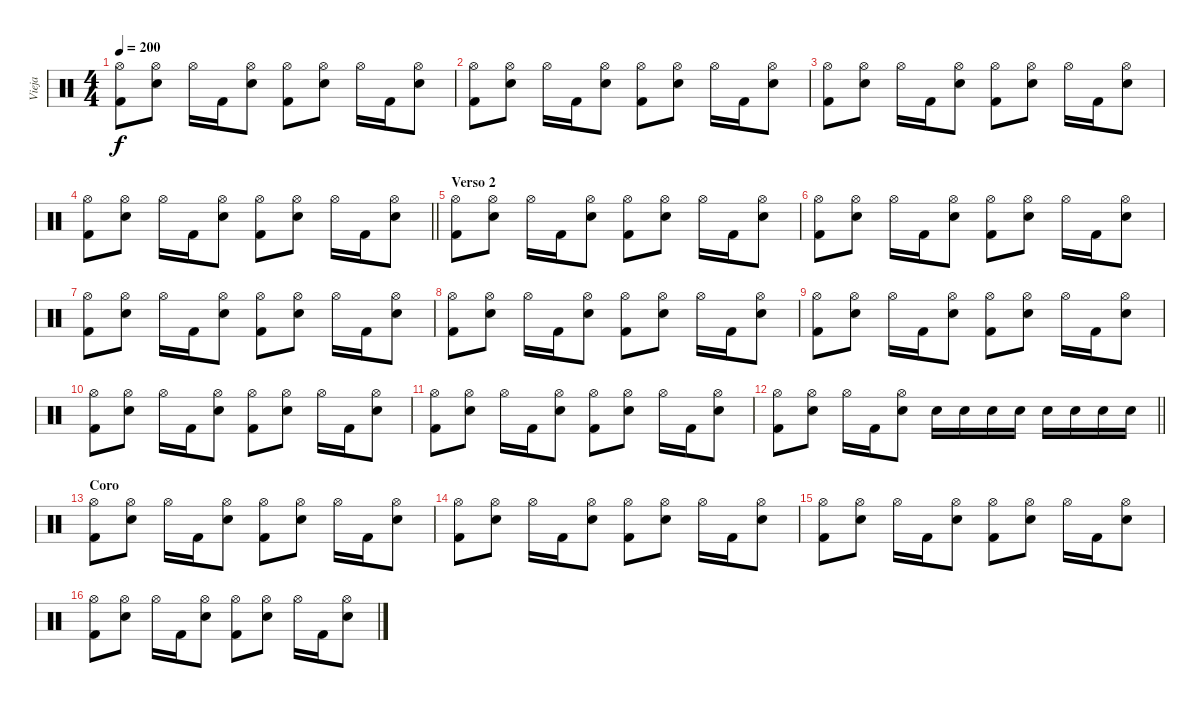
\track ("Vieja" "Vieja") {instrument percussion}
\staff {score}
\articulation defaults
\ts (4 4)
\tempo 200
\clef neutral
\ks c
("Hi-Hat (open)" "Kick (hit) 2").8{dy f} ("Hi-Hat (open)" "Electric Snare (hit)").8 "Hi-Hat (open)".16 "Kick (hit) 2".16 ("Hi-Hat (open)" "Electric Snare (hit)").8 ("Hi-Hat (open)" "Kick (hit) 2").8 ("Hi-Hat (open)" "Electric Snare (hit)").8 "Hi-Hat (open)".16 "Kick (hit) 2".16 ("Hi-Hat (open)" "Electric Snare (hit)").8 |
("Hi-Hat (open)" "Kick (hit) 2").8 ("Hi-Hat (open)" "Electric Snare (hit)").8 "Hi-Hat (open)".16 "Kick (hit) 2".16 ("Hi-Hat (open)" "Electric Snare (hit)").8 ("Hi-Hat (open)" "Kick (hit) 2").8 ("Hi-Hat (open)" "Electric Snare (hit)").8 "Hi-Hat (open)".16 "Kick (hit) 2".16 ("Hi-Hat (open)" "Electric Snare (hit)").8 |
("Hi-Hat (open)" "Kick (hit) 2").8 ("Hi-Hat (open)" "Electric Snare (hit)").8 "Hi-Hat (open)".16 "Kick (hit) 2".16 ("Hi-Hat (open)" "Electric Snare (hit)").8 ("Hi-Hat (open)" "Kick (hit) 2").8 ("Hi-Hat (open)" "Electric Snare (hit)").8 "Hi-Hat (open)".16 "Kick (hit) 2".16 ("Hi-Hat (open)" "Electric Snare (hit)").8 |
\barLineRight lightlight
("Hi-Hat (open)" "Kick (hit) 2").8 ("Hi-Hat (open)" "Electric Snare (hit)").8 "Hi-Hat (open)".16 "Kick (hit) 2".16 ("Hi-Hat (open)" "Electric Snare (hit)").8 ("Hi-Hat (open)" "Kick (hit) 2").8 ("Hi-Hat (open)" "Electric Snare (hit)").8 "Hi-Hat (open)".16 "Kick (hit) 2".16 ("Hi-Hat (open)" "Electric Snare (hit)").8 |
\section ("" "Verso 2")
("Hi-Hat (open)" "Kick (hit) 2").8 ("Hi-Hat (open)" "Electric Snare (hit)").8 "Hi-Hat (open)".16 "Kick (hit) 2".16 ("Hi-Hat (open)" "Electric Snare (hit)").8 ("Hi-Hat (open)" "Kick (hit) 2").8 ("Hi-Hat (open)" "Electric Snare (hit)").8 "Hi-Hat (open)".16 "Kick (hit) 2".16 ("Hi-Hat (open)" "Electric Snare (hit)").8 |
("Hi-Hat (open)" "Kick (hit) 2").8 ("Hi-Hat (open)" "Electric Snare (hit)").8 "Hi-Hat (open)".16 "Kick (hit) 2".16 ("Hi-Hat (open)" "Electric Snare (hit)").8 ("Hi-Hat (open)" "Kick (hit) 2").8 ("Hi-Hat (open)" "Electric Snare (hit)").8 "Hi-Hat (open)".16 "Kick (hit) 2".16 ("Hi-Hat (open)" "Electric Snare (hit)").8 |
("Hi-Hat (open)" "Kick (hit) 2").8 ("Hi-Hat (open)" "Electric Snare (hit)").8 "Hi-Hat (open)".16 "Kick (hit) 2".16 ("Hi-Hat (open)" "Electric Snare (hit)").8 ("Hi-Hat (open)" "Kick (hit) 2").8 ("Hi-Hat (open)" "Electric Snare (hit)").8 "Hi-Hat (open)".16 "Kick (hit) 2".16 ("Hi-Hat (open)" "Electric Snare (hit)").8 |
("Hi-Hat (open)" "Kick (hit) 2").8 ("Hi-Hat (open)" "Electric Snare (hit)").8 "Hi-Hat (open)".16 "Kick (hit) 2".16 ("Hi-Hat (open)" "Electric Snare (hit)").8 ("Hi-Hat (open)" "Kick (hit) 2").8 ("Hi-Hat (open)" "Electric Snare (hit)").8 "Hi-Hat (open)".16 "Kick (hit) 2".16 ("Hi-Hat (open)" "Electric Snare (hit)").8 |
("Hi-Hat (open)" "Kick (hit) 2").8 ("Hi-Hat (open)" "Electric Snare (hit)").8 "Hi-Hat (open)".16 "Kick (hit) 2".16 ("Hi-Hat (open)" "Electric Snare (hit)").8 ("Hi-Hat (open)" "Kick (hit) 2").8 ("Hi-Hat (open)" "Electric Snare (hit)").8 "Hi-Hat (open)".16 "Kick (hit) 2".16 ("Hi-Hat (open)" "Electric Snare (hit)").8 |
("Hi-Hat (open)" "Kick (hit) 2").8 ("Hi-Hat (open)" "Electric Snare (hit)").8 "Hi-Hat (open)".16 "Kick (hit) 2".16 ("Hi-Hat (open)" "Electric Snare (hit)").8 ("Hi-Hat (open)" "Kick (hit) 2").8 ("Hi-Hat (open)" "Electric Snare (hit)").8 "Hi-Hat (open)".16 "Kick (hit) 2".16 ("Hi-Hat (open)" "Electric Snare (hit)").8 |
("Hi-Hat (open)" "Kick (hit) 2").8 ("Hi-Hat (open)" "Electric Snare (hit)").8 "Hi-Hat (open)".16 "Kick (hit) 2".16 ("Hi-Hat (open)" "Electric Snare (hit)").8 ("Hi-Hat (open)" "Kick (hit) 2").8 ("Hi-Hat (open)" "Electric Snare (hit)").8 "Hi-Hat (open)".16 "Kick (hit) 2".16 ("Hi-Hat (open)" "Electric Snare (hit)").8 |
\barLineRight lightlight
("Hi-Hat (open)" "Kick (hit) 2").8 ("Hi-Hat (open)" "Electric Snare (hit)").8 "Hi-Hat (open)".16 "Kick (hit) 2".16 ("Hi-Hat (open)" "Electric Snare (hit)").8 "Electric Snare (hit)".16 "Electric Snare (hit)".16 "Electric Snare (hit)".16 "Electric Snare (hit)".16 "Electric Snare (hit)".16 "Electric Snare (hit)".16 "Electric Snare (hit)".16 "Electric Snare (hit)".16 |
\section ("" "Coro")
("Hi-Hat (open)" "Kick (hit) 2").8 ("Hi-Hat (open)" "Electric Snare (hit)").8 "Hi-Hat (open)".16 "Kick (hit) 2".16 ("Hi-Hat (open)" "Electric Snare (hit)").8 ("Hi-Hat (open)" "Kick (hit) 2").8 ("Hi-Hat (open)" "Electric Snare (hit)").8 "Hi-Hat (open)".16 "Kick (hit) 2".16 ("Hi-Hat (open)" "Electric Snare (hit)").8 |
("Hi-Hat (open)" "Kick (hit) 2").8 ("Hi-Hat (open)" "Electric Snare (hit)").8 "Hi-Hat (open)".16 "Kick (hit) 2".16 ("Hi-Hat (open)" "Electric Snare (hit)").8 ("Hi-Hat (open)" "Kick (hit) 2").8 ("Hi-Hat (open)" "Electric Snare (hit)").8 "Hi-Hat (open)".16 "Kick (hit) 2".16 ("Hi-Hat (open)" "Electric Snare (hit)").8 |
("Hi-Hat (open)" "Kick (hit) 2").8 ("Hi-Hat (open)" "Electric Snare (hit)").8 "Hi-Hat (open)".16 "Kick (hit) 2".16 ("Hi-Hat (open)" "Electric Snare (hit)").8 ("Hi-Hat (open)" "Kick (hit) 2").8 ("Hi-Hat (open)" "Electric Snare (hit)").8 "Hi-Hat (open)".16 "Kick (hit) 2".16 ("Hi-Hat (open)" "Electric Snare (hit)").8 |
("Hi-Hat (open)" "Kick (hit) 2").8 ("Hi-Hat (open)" "Electric Snare (hit)").8 "Hi-Hat (open)".16 "Kick (hit) 2".16 ("Hi-Hat (open)" "Electric Snare (hit)").8 ("Hi-Hat (open)" "Kick (hit) 2").8 ("Hi-Hat (open)" "Electric Snare (hit)").8 "Hi-Hat (open)".16 "Kick (hit) 2".16 ("Hi-Hat (open)" "Electric Snare (hit)").8
